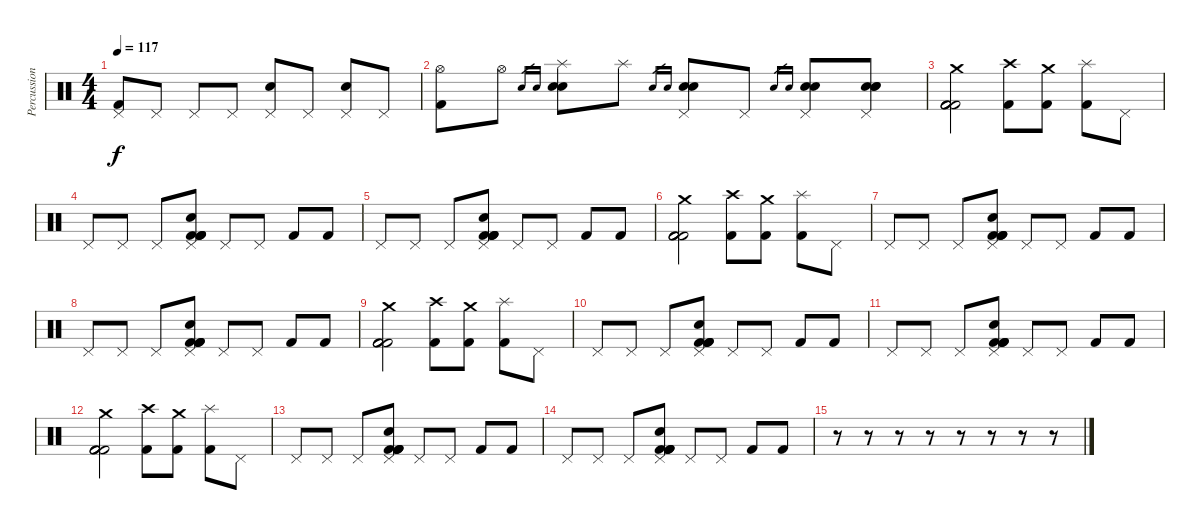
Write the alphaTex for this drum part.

\track ("Percussions" "Percussion") {instrument percussion}
\staff {score}
\articulation defaults
\ts (4 4)
\tempo 117
\clef neutral
\ks c
("Pedal Hi-Hat (hit)" "Kick (hit) 2").8{dy f} "Pedal Hi-Hat (hit)".8 "Pedal Hi-Hat (hit)".8 "Pedal Hi-Hat (hit)".8 ("Pedal Hi-Hat (hit)" "Electric Snare (hit)").8 "Pedal Hi-Hat (hit)".8 ("Pedal Hi-Hat (hit)" "Electric Snare (hit)").8 "Pedal Hi-Hat (hit)".8 |
("Hi-Hat (open)" "Kick (hit) 2").8 "Hi-Hat (open)".8 "Electric Snare (hit)".16{gr} "Electric Snare (hit)".16{gr} ("Splash (hit)" "Electric Snare (hit)" "Electric Snare (hit)").8 "Splash (hit)".8 "Electric Snare (hit)".16{gr} "Electric Snare (hit)".16{gr} ("Pedal Hi-Hat (hit)" "Electric Snare (hit)" "Electric Snare (hit)").8 "Pedal Hi-Hat (hit)".8 "Snare (hit) 2".16{gr} "Snare (hit) 2".16{gr} ("Pedal Hi-Hat (hit)" "Snare (hit) 2" "Snare (hit) 2").8 ("Pedal Hi-Hat (hit)" "Electric Snare (hit)" "Snare (hit) 2" "Snare (hit) 2").8 |
("Crash medium (hit)" "Kick (hit) 2" "Kick (hit) 2" "Kick (hit) 2" "Kick (hit) 2").2 ("Crash high (hit)" "Kick (hit) 2").8 ("Crash medium (hit)" "Kick (hit) 2").8 ("Splash (hit)" "Kick (hit) 2").8 "Pedal Hi-Hat (hit)".8 |
"Pedal Hi-Hat (hit)".8 "Pedal Hi-Hat (hit)".8 "Pedal Hi-Hat (hit)".8 ("Pedal Hi-Hat (hit)" "Kick (hit) 2" "Kick (hit) 2" "Electric Snare (hit)" "Kick (hit) 2" "Kick (hit) 2").8 "Pedal Hi-Hat (hit)".8 "Pedal Hi-Hat (hit)".8 "Kick (hit) 2".8 "Kick (hit) 2".8 |
"Pedal Hi-Hat (hit)".8 "Pedal Hi-Hat (hit)".8 "Pedal Hi-Hat (hit)".8 ("Pedal Hi-Hat (hit)" "Kick (hit) 2" "Kick (hit) 2" "Electric Snare (hit)" "Kick (hit) 2" "Kick (hit) 2").8 "Pedal Hi-Hat (hit)".8 "Pedal Hi-Hat (hit)".8 "Kick (hit) 2".8 "Kick (hit) 2".8 |
("Crash medium (hit)" "Kick (hit) 2" "Kick (hit) 2" "Kick (hit) 2" "Kick (hit) 2").2 ("Crash high (hit)" "Kick (hit) 2").8 ("Crash medium (hit)" "Kick (hit) 2").8 ("Splash (hit)" "Kick (hit) 2").8 "Pedal Hi-Hat (hit)".8 |
"Pedal Hi-Hat (hit)".8 "Pedal Hi-Hat (hit)".8 "Pedal Hi-Hat (hit)".8 ("Pedal Hi-Hat (hit)" "Kick (hit) 2" "Kick (hit) 2" "Electric Snare (hit)" "Kick (hit) 2" "Kick (hit) 2").8 "Pedal Hi-Hat (hit)".8 "Pedal Hi-Hat (hit)".8 "Kick (hit) 2".8 "Kick (hit) 2".8 |
"Pedal Hi-Hat (hit)".8 "Pedal Hi-Hat (hit)".8 "Pedal Hi-Hat (hit)".8 ("Pedal Hi-Hat (hit)" "Kick (hit) 2" "Kick (hit) 2" "Electric Snare (hit)" "Kick (hit) 2" "Kick (hit) 2").8 "Pedal Hi-Hat (hit)".8 "Pedal Hi-Hat (hit)".8 "Kick (hit) 2".8 "Kick (hit) 2".8 |
("Crash medium (hit)" "Kick (hit) 2" "Kick (hit) 2" "Kick (hit) 2" "Kick (hit) 2").2 ("Crash high (hit)" "Kick (hit) 2").8 ("Crash medium (hit)" "Kick (hit) 2").8 ("Splash (hit)" "Kick (hit) 2").8 "Pedal Hi-Hat (hit)".8 |
"Pedal Hi-Hat (hit)".8 "Pedal Hi-Hat (hit)".8 "Pedal Hi-Hat (hit)".8 ("Pedal Hi-Hat (hit)" "Kick (hit) 2" "Kick (hit) 2" "Electric Snare (hit)" "Kick (hit) 2" "Kick (hit) 2").8 "Pedal Hi-Hat (hit)".8 "Pedal Hi-Hat (hit)".8 "Kick (hit) 2".8 "Kick (hit) 2".8 |
"Pedal Hi-Hat (hit)".8 "Pedal Hi-Hat (hit)".8 "Pedal Hi-Hat (hit)".8 ("Pedal Hi-Hat (hit)" "Kick (hit) 2" "Kick (hit) 2" "Electric Snare (hit)" "Kick (hit) 2" "Kick (hit) 2").8 "Pedal Hi-Hat (hit)".8 "Pedal Hi-Hat (hit)".8 "Kick (hit) 2".8 "Kick (hit) 2".8 |
("Crash medium (hit)" "Kick (hit) 2" "Kick (hit) 2" "Kick (hit) 2" "Kick (hit) 2").2 ("Crash high (hit)" "Kick (hit) 2").8 ("Crash medium (hit)" "Kick (hit) 2").8 ("Splash (hit)" "Kick (hit) 2").8 "Pedal Hi-Hat (hit)".8 |
"Pedal Hi-Hat (hit)".8 "Pedal Hi-Hat (hit)".8 "Pedal Hi-Hat (hit)".8 ("Pedal Hi-Hat (hit)" "Kick (hit) 2" "Kick (hit) 2" "Electric Snare (hit)" "Kick (hit) 2" "Kick (hit) 2").8 "Pedal Hi-Hat (hit)".8 "Pedal Hi-Hat (hit)".8 "Kick (hit) 2".8 "Kick (hit) 2".8 |
"Pedal Hi-Hat (hit)".8 "Pedal Hi-Hat (hit)".8 "Pedal Hi-Hat (hit)".8 ("Pedal Hi-Hat (hit)" "Kick (hit) 2" "Kick (hit) 2" "Electric Snare (hit)" "Kick (hit) 2" "Kick (hit) 2").8 "Pedal Hi-Hat (hit)".8 "Pedal Hi-Hat (hit)".8 "Kick (hit) 2".8 "Kick (hit) 2".8 |
r.8 r.8 r.8 r.8 r.8 r.8 r.8 r.8
